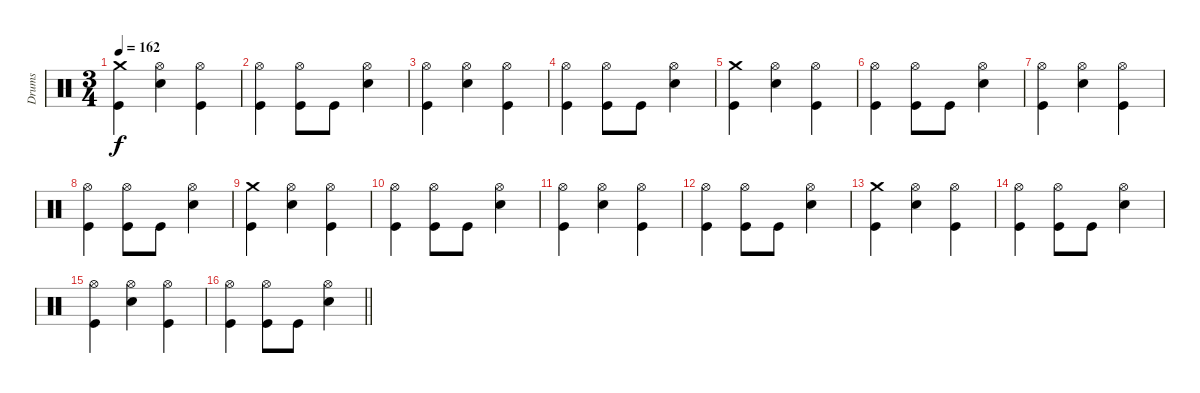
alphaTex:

\track ("Drums" "Drums") {instrument percussion}
\staff {score}
\articulation defaults
\ts (3 4)
\tempo 162
\clef neutral
\ks c
("Crash medium (hit)" "Kick (hit)").4{dy f} ("Hi-Hat (open)" "Snare (hit) 2").4 ("Hi-Hat (open)" "Kick (hit)").4 |
("Hi-Hat (open)" "Kick (hit)").4 ("Hi-Hat (open)" "Kick (hit)").8 "Kick (hit)".8 ("Hi-Hat (open)" "Snare (hit) 2").4 |
("Hi-Hat (open)" "Kick (hit)").4 ("Hi-Hat (open)" "Snare (hit) 2").4 ("Hi-Hat (open)" "Kick (hit)").4 |
("Hi-Hat (open)" "Kick (hit)").4 ("Hi-Hat (open)" "Kick (hit)").8 "Kick (hit)".8 ("Hi-Hat (open)" "Snare (hit) 2").4 |
("Crash medium (hit)" "Kick (hit)").4 ("Hi-Hat (open)" "Snare (hit) 2").4 ("Hi-Hat (open)" "Kick (hit)").4 |
("Hi-Hat (open)" "Kick (hit)").4 ("Hi-Hat (open)" "Kick (hit)").8 "Kick (hit)".8 ("Hi-Hat (open)" "Snare (hit) 2").4 |
("Hi-Hat (open)" "Kick (hit)").4 ("Hi-Hat (open)" "Snare (hit) 2").4 ("Hi-Hat (open)" "Kick (hit)").4 |
("Hi-Hat (open)" "Kick (hit)").4 ("Hi-Hat (open)" "Kick (hit)").8 "Kick (hit)".8 ("Hi-Hat (open)" "Snare (hit) 2").4 |
("Crash medium (hit)" "Kick (hit)").4 ("Hi-Hat (open)" "Snare (hit) 2").4 ("Hi-Hat (open)" "Kick (hit)").4 |
("Hi-Hat (open)" "Kick (hit)").4 ("Hi-Hat (open)" "Kick (hit)").8 "Kick (hit)".8 ("Hi-Hat (open)" "Snare (hit) 2").4 |
("Hi-Hat (open)" "Kick (hit)").4 ("Hi-Hat (open)" "Snare (hit) 2").4 ("Hi-Hat (open)" "Kick (hit)").4 |
("Hi-Hat (open)" "Kick (hit)").4 ("Hi-Hat (open)" "Kick (hit)").8 "Kick (hit)".8 ("Hi-Hat (open)" "Snare (hit) 2").4 |
("Crash medium (hit)" "Kick (hit)").4 ("Hi-Hat (open)" "Snare (hit) 2").4 ("Hi-Hat (open)" "Kick (hit)").4 |
("Hi-Hat (open)" "Kick (hit)").4 ("Hi-Hat (open)" "Kick (hit)").8 "Kick (hit)".8 ("Hi-Hat (open)" "Snare (hit) 2").4 |
("Hi-Hat (open)" "Kick (hit)").4 ("Hi-Hat (open)" "Snare (hit) 2").4 ("Hi-Hat (open)" "Kick (hit)").4 |
\barLineRight lightlight
("Hi-Hat (open)" "Kick (hit)").4 ("Hi-Hat (open)" "Kick (hit)").8 "Kick (hit)".8 ("Hi-Hat (open)" "Snare (hit) 2").4
